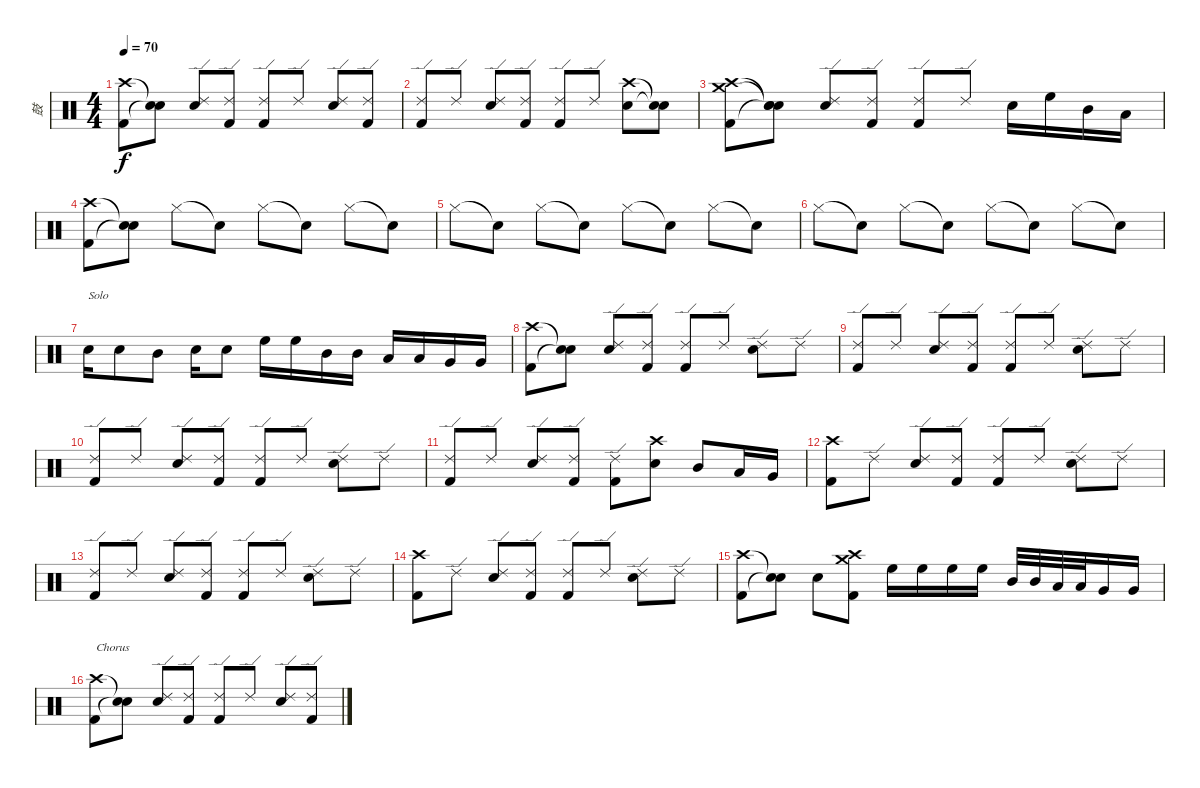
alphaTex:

\track ("鼓" "鼓") {instrument percussion}
\staff {score}
\articulation defaults
\ts (4 4)
\tempo 70
\clef neutral
\ks c
("Crash high (hit)" "Kick (hit) 2").8{dy f} ("Snare (hit)"{t} "Snare (hit)"{t}).8 ("Ride (edge) 2" "Electric Snare (hit)").8 ("Ride (edge) 2" "Kick (hit) 2").8 ("Ride (edge) 2" "Kick (hit) 2").8 "Ride (edge) 2".8 ("Ride (edge) 2" "Electric Snare (hit)").8 ("Ride (edge) 2" "Kick (hit) 2").8 |
("Ride (edge) 2" "Kick (hit) 2").8 "Ride (edge) 2".8 ("Ride (edge) 2" "Electric Snare (hit)").8 ("Ride (edge) 2" "Kick (hit) 2").8 ("Ride (edge) 2" "Kick (hit) 2").8 "Ride (edge) 2".8 ("Crash high (hit)" "Electric Snare (hit)").8 ("Snare (hit)"{t} "Snare (hit)"{t}).8 |
("Crash high (hit)" "Crash medium (hit)" "Kick (hit) 2").8 ("Snare (hit)"{t} "Snare (hit)"{t} "Snare (hit)"{t}).8 ("Ride (edge) 2" "Electric Snare (hit)").8 ("Ride (edge) 2" "Kick (hit) 2").8 ("Ride (edge) 2" "Kick (hit) 2").8 "Ride (edge) 2".8 "Electric Snare (hit)".16 "High Floor Tom (hit)".16 "Mid Tom (hit)".16 "Low Tom (hit)".16 |
("Crash high (hit)" "Kick (hit) 2").8 ("Snare (hit)"{t} "Snare (hit)"{t}).8 "Hi-Hat (closed)".8 "Snare (hit)"{t}.8 "Hi-Hat (closed)".8 "Snare (hit)"{t}.8 "Hi-Hat (closed)".8 "Snare (hit)"{t}.8 |
"Hi-Hat (closed)".8 "Snare (hit)"{t}.8 "Hi-Hat (closed)".8 "Snare (hit)"{t}.8 "Hi-Hat (closed)".8 "Snare (hit)"{t}.8 "Hi-Hat (closed)".8 "Snare (hit)"{t}.8 |
"Hi-Hat (closed)".8 "Snare (hit)"{t}.8 "Hi-Hat (closed)".8 "Snare (hit)"{t}.8 "Hi-Hat (closed)".8 "Snare (hit)"{t}.8 "Hi-Hat (closed)".8 "Snare (hit)"{t}.8 |
"Electric Snare (hit)".16{txt "Solo"} "Electric Snare (hit)".8 "Mid Tom (hit)".8 "Electric Snare (hit)".16 "Electric Snare (hit)".8 "High Floor Tom (hit)".16 "High Floor Tom (hit)".16 "Mid Tom (hit)".16 "Mid Tom (hit)".16 "Low Tom (hit)".16 "Low Tom (hit)".16 "Very Low Tom (hit)".16 "Very Low Tom (hit)".16 |
("Crash high (hit)" "Kick (hit) 2").8 ("Snare (hit)"{t} "Snare (hit)"{t}).8 ("Ride (edge) 2" "Electric Snare (hit)").8 ("Ride (edge) 2" "Kick (hit) 2").8 ("Ride (edge) 2" "Kick (hit) 2").8 "Ride (edge) 2".8 ("Ride (edge) 2" "Electric Snare (hit)").8 "Ride (edge) 2".8 |
("Ride (edge) 2" "Kick (hit) 2").8 "Ride (edge) 2".8 ("Ride (edge) 2" "Electric Snare (hit)").8 ("Ride (edge) 2" "Kick (hit) 2").8 ("Ride (edge) 2" "Kick (hit) 2").8 "Ride (edge) 2".8 ("Ride (edge) 2" "Electric Snare (hit)").8 "Ride (edge) 2".8 |
("Ride (edge) 2" "Kick (hit) 2").8 "Ride (edge) 2".8 ("Ride (edge) 2" "Electric Snare (hit)").8 ("Ride (edge) 2" "Kick (hit) 2").8 ("Ride (edge) 2" "Kick (hit) 2").8 "Ride (edge) 2".8 ("Ride (edge) 2" "Electric Snare (hit)").8 "Ride (edge) 2".8 |
("Ride (edge) 2" "Kick (hit) 2").8 "Ride (edge) 2".8 ("Ride (edge) 2" "Electric Snare (hit)").8 ("Ride (edge) 2" "Kick (hit) 2").8 ("Ride (edge) 2" "Kick (hit) 2").8 ("Crash high (hit)" "Electric Snare (hit)").8 "Mid Tom (hit)".8 "Low Tom (hit)".16 "Very Low Tom (hit)".16 |
("Crash high (hit)" "Kick (hit) 2").8 "Ride (edge) 2".8 ("Ride (edge) 2" "Electric Snare (hit)").8 ("Ride (edge) 2" "Kick (hit) 2").8 ("Ride (edge) 2" "Kick (hit) 2").8 "Ride (edge) 2".8 ("Ride (edge) 2" "Electric Snare (hit)").8 "Ride (edge) 2".8 |
("Ride (edge) 2" "Kick (hit) 2").8 "Ride (edge) 2".8 ("Ride (edge) 2" "Electric Snare (hit)").8 ("Ride (edge) 2" "Kick (hit) 2").8 ("Ride (edge) 2" "Kick (hit) 2").8 "Ride (edge) 2".8 ("Ride (edge) 2" "Electric Snare (hit)").8 "Ride (edge) 2".8 |
("Crash high (hit)" "Kick (hit) 2").8 "Ride (edge) 2".8 ("Ride (edge) 2" "Electric Snare (hit)").8 ("Ride (edge) 2" "Kick (hit) 2").8 ("Ride (edge) 2" "Kick (hit) 2").8 "Ride (edge) 2".8 ("Ride (edge) 2" "Electric Snare (hit)").8 "Ride (edge) 2".8 |
("Crash high (hit)" "Kick (hit) 2").8 ("Snare (hit)"{t} "Snare (hit)"{t}).8 "Electric Snare (hit)".8 ("Crash high (hit)" "Crash medium (hit)" "Kick (hit) 2").8 "High Floor Tom (hit)".16 "High Floor Tom (hit)".16 "High Floor Tom (hit)".16 "High Floor Tom (hit)".16 "Mid Tom (hit)".32 "Mid Tom (hit)".32 "Low Tom (hit)".32 "Low Tom (hit)".32 "Very Low Tom (hit)".16 "Very Low Tom (hit)".16 |
("Crash high (hit)" "Kick (hit) 2").8{txt "Chorus"} ("Snare (hit)"{t} "Snare (hit)"{t}).8 ("Ride (edge) 2" "Electric Snare (hit)").8 ("Ride (edge) 2" "Kick (hit) 2").8 ("Ride (edge) 2" "Kick (hit) 2").8 "Ride (edge) 2".8 ("Ride (edge) 2" "Electric Snare (hit)").8 ("Ride (edge) 2" "Kick (hit) 2").8
